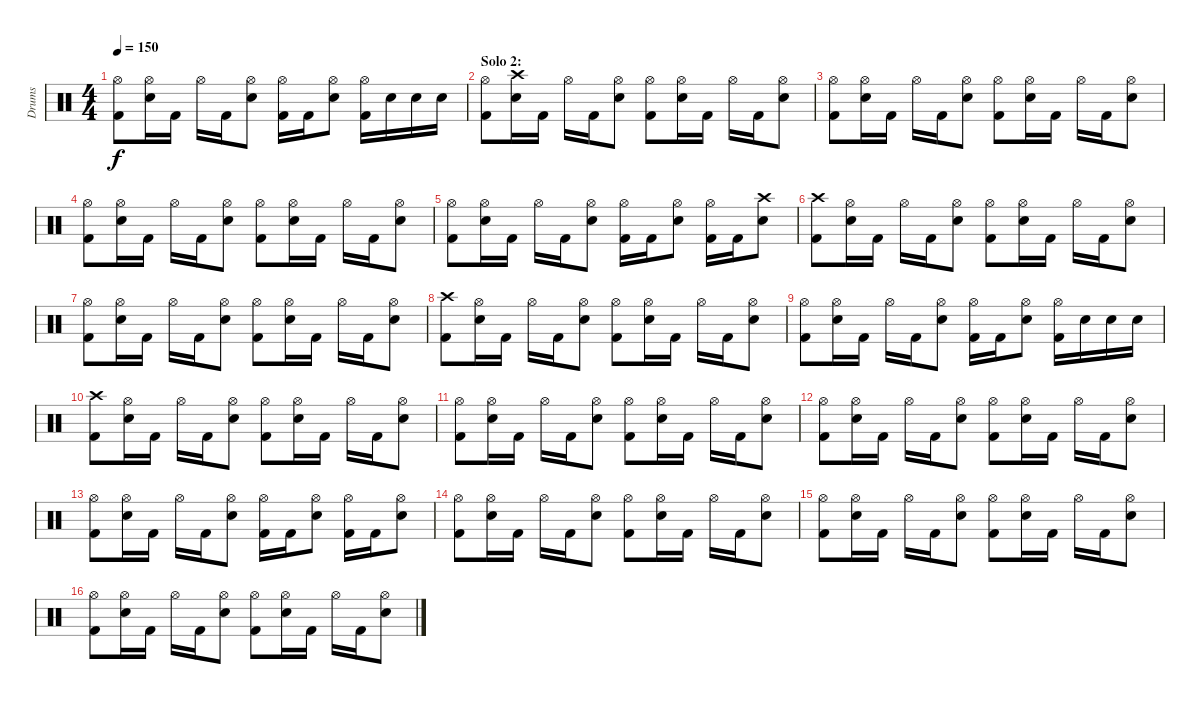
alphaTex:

\track ("Drums" "Drums") {instrument percussion}
\staff {score}
\articulation defaults
\ts (4 4)
\tempo 150
\clef neutral
\ks c
("Hi-Hat (open)" "Kick (hit) 2").8{dy f} ("Hi-Hat (open)" "Snare (hit) 2").16 "Kick (hit) 2".16 "Hi-Hat (open)".16 "Kick (hit) 2".16 ("Hi-Hat (open)" "Snare (hit) 2").8 ("Hi-Hat (open)" "Kick (hit) 2").16 "Kick (hit) 2".16 ("Hi-Hat (open)" "Snare (hit) 2").8 ("Hi-Hat (open)" "Kick (hit) 2").16 "Snare (hit) 2".16 "Snare (hit) 2".16 "Snare (hit) 2".16 |
\section ("" "Solo 2:")
("Hi-Hat (open)" "Kick (hit) 2").8 ("Crash high (hit)" "Snare (hit) 2").16 "Kick (hit) 2".16 "Hi-Hat (open)".16 "Kick (hit) 2".16 ("Hi-Hat (open)" "Snare (hit) 2").8 ("Hi-Hat (open)" "Kick (hit) 2").8 ("Hi-Hat (open)" "Snare (hit) 2").16 "Kick (hit) 2".16 "Hi-Hat (open)".16 "Kick (hit) 2".16 ("Hi-Hat (open)" "Snare (hit) 2").8 |
("Hi-Hat (open)" "Kick (hit) 2").8 ("Hi-Hat (open)" "Snare (hit) 2").16 "Kick (hit) 2".16 "Hi-Hat (open)".16 "Kick (hit) 2".16 ("Hi-Hat (open)" "Snare (hit) 2").8 ("Hi-Hat (open)" "Kick (hit) 2").8 ("Hi-Hat (open)" "Snare (hit) 2").16 "Kick (hit) 2".16 "Hi-Hat (open)".16 "Kick (hit) 2".16 ("Hi-Hat (open)" "Snare (hit) 2").8 |
("Hi-Hat (open)" "Kick (hit) 2").8 ("Hi-Hat (open)" "Snare (hit) 2").16 "Kick (hit) 2".16 "Hi-Hat (open)".16 "Kick (hit) 2".16 ("Hi-Hat (open)" "Snare (hit) 2").8 ("Hi-Hat (open)" "Kick (hit) 2").8 ("Hi-Hat (open)" "Snare (hit) 2").16 "Kick (hit) 2".16 "Hi-Hat (open)".16 "Kick (hit) 2".16 ("Hi-Hat (open)" "Snare (hit) 2").8 |
("Hi-Hat (open)" "Kick (hit) 2").8 ("Hi-Hat (open)" "Snare (hit) 2").16 "Kick (hit) 2".16 "Hi-Hat (open)".16 "Kick (hit) 2".16 ("Hi-Hat (open)" "Snare (hit) 2").8 ("Hi-Hat (open)" "Kick (hit) 2").16 "Kick (hit) 2".16 ("Hi-Hat (open)" "Snare (hit) 2").8 ("Hi-Hat (open)" "Kick (hit) 2").16 "Kick (hit) 2".16 ("Crash high (hit)" "Snare (hit) 2").8 |
("Crash high (hit)" "Kick (hit) 2").8 ("Hi-Hat (open)" "Snare (hit) 2").16 "Kick (hit) 2".16 "Hi-Hat (open)".16 "Kick (hit) 2".16 ("Hi-Hat (open)" "Snare (hit) 2").8 ("Hi-Hat (open)" "Kick (hit) 2").8 ("Hi-Hat (open)" "Snare (hit) 2").16 "Kick (hit) 2".16 "Hi-Hat (open)".16 "Kick (hit) 2".16 ("Hi-Hat (open)" "Snare (hit) 2").8 |
("Hi-Hat (open)" "Kick (hit) 2").8 ("Hi-Hat (open)" "Snare (hit) 2").16 "Kick (hit) 2".16 "Hi-Hat (open)".16 "Kick (hit) 2".16 ("Hi-Hat (open)" "Snare (hit) 2").8 ("Hi-Hat (open)" "Kick (hit) 2").8 ("Hi-Hat (open)" "Snare (hit) 2").16 "Kick (hit) 2".16 "Hi-Hat (open)".16 "Kick (hit) 2".16 ("Hi-Hat (open)" "Snare (hit) 2").8 |
("Crash high (hit)" "Kick (hit) 2").8 ("Hi-Hat (open)" "Snare (hit) 2").16 "Kick (hit) 2".16 "Hi-Hat (open)".16 "Kick (hit) 2".16 ("Hi-Hat (open)" "Snare (hit) 2").8 ("Hi-Hat (open)" "Kick (hit) 2").8 ("Hi-Hat (open)" "Snare (hit) 2").16 "Kick (hit) 2".16 "Hi-Hat (open)".16 "Kick (hit) 2".16 ("Hi-Hat (open)" "Snare (hit) 2").8 |
("Hi-Hat (open)" "Kick (hit) 2").8 ("Hi-Hat (open)" "Snare (hit) 2").16 "Kick (hit) 2".16 "Hi-Hat (open)".16 "Kick (hit) 2".16 ("Hi-Hat (open)" "Snare (hit) 2").8 ("Hi-Hat (open)" "Kick (hit) 2").16 "Kick (hit) 2".16 ("Hi-Hat (open)" "Snare (hit) 2").8 ("Hi-Hat (open)" "Kick (hit) 2").16 "Snare (hit) 2".16 "Snare (hit) 2".16 "Snare (hit) 2".16 |
("Crash high (hit)" "Kick (hit) 2").8 ("Hi-Hat (open)" "Snare (hit) 2").16 "Kick (hit) 2".16 "Hi-Hat (open)".16 "Kick (hit) 2".16 ("Hi-Hat (open)" "Snare (hit) 2").8 ("Hi-Hat (open)" "Kick (hit) 2").8 ("Hi-Hat (open)" "Snare (hit) 2").16 "Kick (hit) 2".16 "Hi-Hat (open)".16 "Kick (hit) 2".16 ("Hi-Hat (open)" "Snare (hit) 2").8 |
("Hi-Hat (open)" "Kick (hit) 2").8 ("Hi-Hat (open)" "Snare (hit) 2").16 "Kick (hit) 2".16 "Hi-Hat (open)".16 "Kick (hit) 2".16 ("Hi-Hat (open)" "Snare (hit) 2").8 ("Hi-Hat (open)" "Kick (hit) 2").8 ("Hi-Hat (open)" "Snare (hit) 2").16 "Kick (hit) 2".16 "Hi-Hat (open)".16 "Kick (hit) 2".16 ("Hi-Hat (open)" "Snare (hit) 2").8 |
("Hi-Hat (open)" "Kick (hit) 2").8 ("Hi-Hat (open)" "Snare (hit) 2").16 "Kick (hit) 2".16 "Hi-Hat (open)".16 "Kick (hit) 2".16 ("Hi-Hat (open)" "Snare (hit) 2").8 ("Hi-Hat (open)" "Kick (hit) 2").8 ("Hi-Hat (open)" "Snare (hit) 2").16 "Kick (hit) 2".16 "Hi-Hat (open)".16 "Kick (hit) 2".16 ("Hi-Hat (open)" "Snare (hit) 2").8 |
("Hi-Hat (open)" "Kick (hit) 2").8 ("Hi-Hat (open)" "Snare (hit) 2").16 "Kick (hit) 2".16 "Hi-Hat (open)".16 "Kick (hit) 2".16 ("Hi-Hat (open)" "Snare (hit) 2").8 ("Hi-Hat (open)" "Kick (hit) 2").16 "Kick (hit) 2".16 ("Hi-Hat (open)" "Snare (hit) 2").8 ("Hi-Hat (open)" "Kick (hit) 2").16 "Kick (hit) 2".16 ("Hi-Hat (open)" "Snare (hit) 2").8 |
("Hi-Hat (open)" "Kick (hit) 2").8 ("Hi-Hat (open)" "Snare (hit) 2").16 "Kick (hit) 2".16 "Hi-Hat (open)".16 "Kick (hit) 2".16 ("Hi-Hat (open)" "Snare (hit) 2").8 ("Hi-Hat (open)" "Kick (hit) 2").8 ("Hi-Hat (open)" "Snare (hit) 2").16 "Kick (hit) 2".16 "Hi-Hat (open)".16 "Kick (hit) 2".16 ("Hi-Hat (open)" "Snare (hit) 2").8 |
("Hi-Hat (open)" "Kick (hit) 2").8 ("Hi-Hat (open)" "Snare (hit) 2").16 "Kick (hit) 2".16 "Hi-Hat (open)".16 "Kick (hit) 2".16 ("Hi-Hat (open)" "Snare (hit) 2").8 ("Hi-Hat (open)" "Kick (hit) 2").8 ("Hi-Hat (open)" "Snare (hit) 2").16 "Kick (hit) 2".16 "Hi-Hat (open)".16 "Kick (hit) 2".16 ("Hi-Hat (open)" "Snare (hit) 2").8 |
("Hi-Hat (open)" "Kick (hit) 2").8 ("Hi-Hat (open)" "Snare (hit) 2").16 "Kick (hit) 2".16 "Hi-Hat (open)".16 "Kick (hit) 2".16 ("Hi-Hat (open)" "Snare (hit) 2").8 ("Hi-Hat (open)" "Kick (hit) 2").8 ("Hi-Hat (open)" "Snare (hit) 2").16 "Kick (hit) 2".16 "Hi-Hat (open)".16 "Kick (hit) 2".16 ("Hi-Hat (open)" "Snare (hit) 2").8
